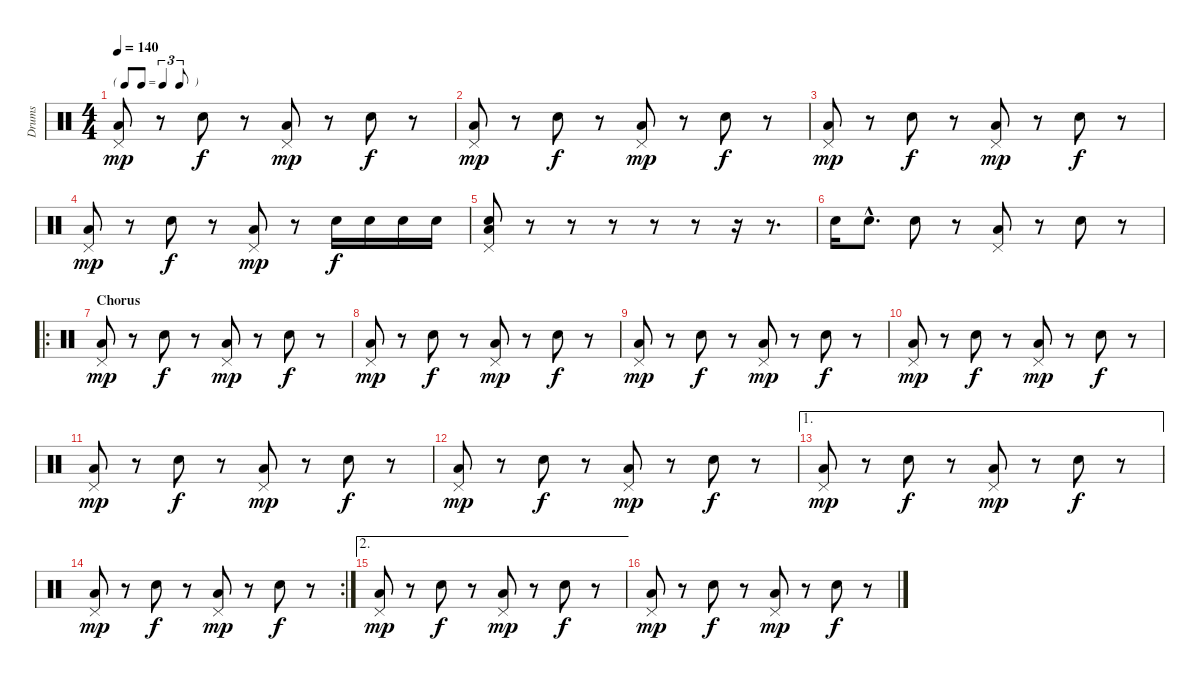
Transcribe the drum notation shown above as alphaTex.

\track ("Drums" "Drums") {instrument percussion}
\staff {score}
\articulation defaults
\ts (4 4)
\tf triplet8th
\tempo 140
\clef neutral
\ks c
("Pedal Hi-Hat (hit)" "Low Floor Tom (hit)").8{dy mp} r.8 "Snare (hit) 2".8{dy f} r.8 ("Pedal Hi-Hat (hit)" "Low Floor Tom (hit)").8{dy mp} r.8 "Snare (hit) 2".8{dy f} r.8 |
("Pedal Hi-Hat (hit)" "Low Floor Tom (hit)").8{dy mp} r.8 "Snare (hit) 2".8{dy f} r.8 ("Pedal Hi-Hat (hit)" "Low Floor Tom (hit)").8{dy mp} r.8 "Snare (hit) 2".8{dy f} r.8 |
("Pedal Hi-Hat (hit)" "Low Floor Tom (hit)").8{dy mp} r.8 "Snare (hit) 2".8{dy f} r.8 ("Pedal Hi-Hat (hit)" "Low Floor Tom (hit)").8{dy mp} r.8 "Snare (hit) 2".8{dy f} r.8 |
("Pedal Hi-Hat (hit)" "Low Floor Tom (hit)").8{dy mp} r.8 "Snare (hit) 2".8{dy f} r.8 ("Pedal Hi-Hat (hit)" "Low Floor Tom (hit)").8{dy mp} r.8 "Snare (hit) 2".16{dy f} "Snare (hit) 2".16 "Snare (hit) 2".16 "Snare (hit) 2".16 |
("Pedal Hi-Hat (hit)" "Snare (hit) 2" "Low Floor Tom (hit)").8 r.8 r.8 r.8 r.8 r.8 r.16 r.8{d} |
"Snare (hit) 2".16 "Snare (hit) 2"{hac}.8{d} "Snare (hit) 2".8 r.8 ("Pedal Hi-Hat (hit)" "Low Floor Tom (hit)").8 r.8 "Snare (hit) 2".8 r.8 |
\ro
\section ("" "Chorus")
("Pedal Hi-Hat (hit)" "Low Floor Tom (hit)").8{dy mp} r.8 "Snare (hit) 2".8{dy f} r.8 ("Pedal Hi-Hat (hit)" "Low Floor Tom (hit)").8{dy mp} r.8 "Snare (hit) 2".8{dy f} r.8 |
("Pedal Hi-Hat (hit)" "Low Floor Tom (hit)").8{dy mp} r.8 "Snare (hit) 2".8{dy f} r.8 ("Pedal Hi-Hat (hit)" "Low Floor Tom (hit)").8{dy mp} r.8 "Snare (hit) 2".8{dy f} r.8 |
("Pedal Hi-Hat (hit)" "Low Floor Tom (hit)").8{dy mp} r.8 "Snare (hit) 2".8{dy f} r.8 ("Pedal Hi-Hat (hit)" "Low Floor Tom (hit)").8{dy mp} r.8 "Snare (hit) 2".8{dy f} r.8 |
("Pedal Hi-Hat (hit)" "Low Floor Tom (hit)").8{dy mp} r.8 "Snare (hit) 2".8{dy f} r.8 ("Pedal Hi-Hat (hit)" "Low Floor Tom (hit)").8{dy mp} r.8 "Snare (hit) 2".8{dy f} r.8 |
("Pedal Hi-Hat (hit)" "Low Floor Tom (hit)").8{dy mp} r.8 "Snare (hit) 2".8{dy f} r.8 ("Pedal Hi-Hat (hit)" "Low Floor Tom (hit)").8{dy mp} r.8 "Snare (hit) 2".8{dy f} r.8 |
("Pedal Hi-Hat (hit)" "Low Floor Tom (hit)").8{dy mp} r.8 "Snare (hit) 2".8{dy f} r.8 ("Pedal Hi-Hat (hit)" "Low Floor Tom (hit)").8{dy mp} r.8 "Snare (hit) 2".8{dy f} r.8 |
\ae 1
("Pedal Hi-Hat (hit)" "Low Floor Tom (hit)").8{dy mp} r.8 "Snare (hit) 2".8{dy f} r.8 ("Pedal Hi-Hat (hit)" "Low Floor Tom (hit)").8{dy mp} r.8 "Snare (hit) 2".8{dy f} r.8 |
\rc 2
("Pedal Hi-Hat (hit)" "Low Floor Tom (hit)").8{dy mp} r.8 "Snare (hit) 2".8{dy f} r.8 ("Pedal Hi-Hat (hit)" "Low Floor Tom (hit)").8{dy mp} r.8 "Snare (hit) 2".8{dy f} r.8 |
\ae 2
("Pedal Hi-Hat (hit)" "Low Floor Tom (hit)").8{dy mp volume 2} r.8 "Snare (hit) 2".8{dy f} r.8 ("Pedal Hi-Hat (hit)" "Low Floor Tom (hit)").8{dy mp} r.8 "Snare (hit) 2".8{dy f} r.8 |
("Pedal Hi-Hat (hit)" "Low Floor Tom (hit)").8{dy mp} r.8 "Snare (hit) 2".8{dy f} r.8 ("Pedal Hi-Hat (hit)" "Low Floor Tom (hit)").8{dy mp} r.8 "Snare (hit) 2".8{dy f} r.8
